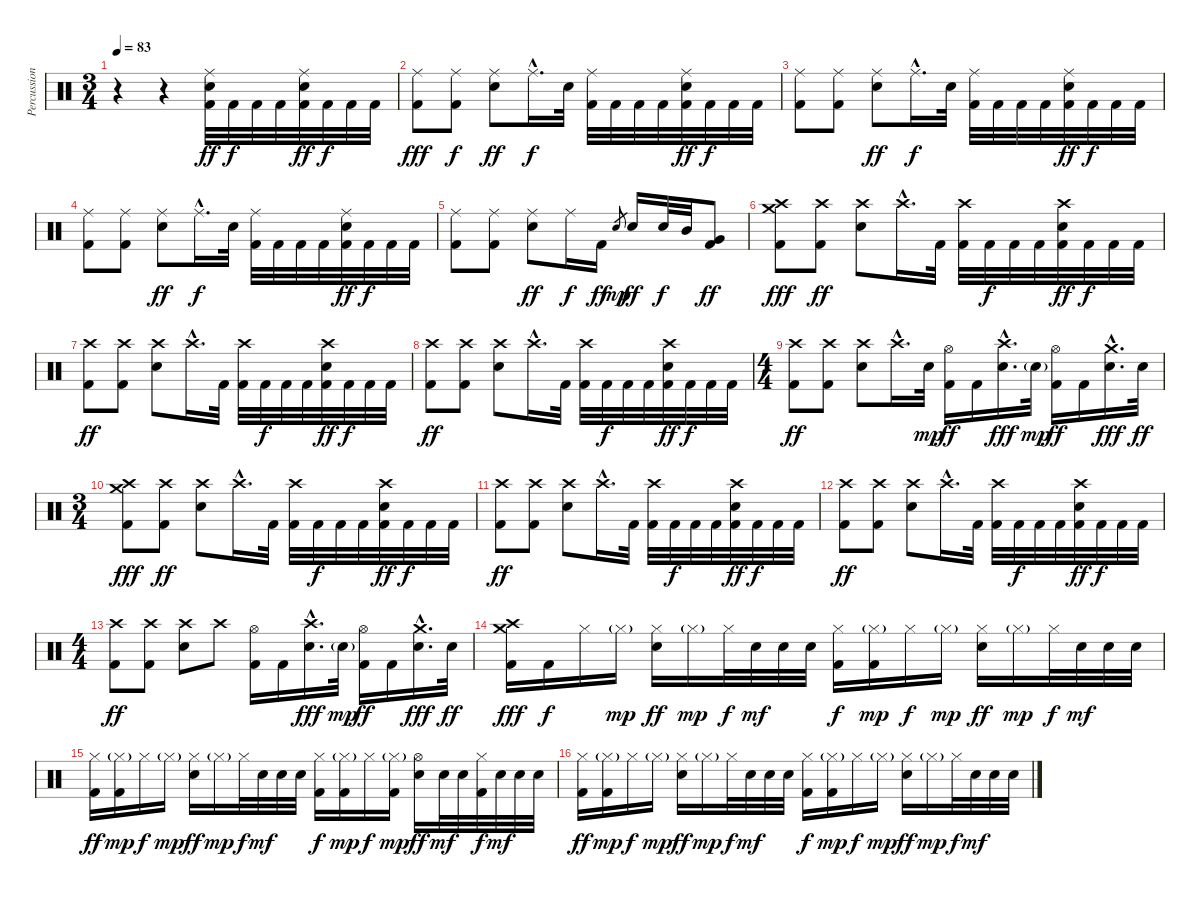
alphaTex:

\track ("Percussions" "Percussion") {instrument percussion}
\staff {score}
\articulation defaults
\ts (3 4)
\tempo 83
\clef neutral
\ks c
r.4{dy ff} r.4 ("Ride (middle)" "Electric Snare (hit)" "Kick (hit) 2").32 "Kick (hit) 2".32{dy f} "Kick (hit) 2".32 "Kick (hit) 2".32 ("Ride (middle)" "Electric Snare (hit)" "Kick (hit) 2").32{dy ff} "Kick (hit) 2".32{dy f} "Kick (hit) 2".32 "Kick (hit) 2".32 |
("Ride (middle)" "Kick (hit) 2").8{dy fff} ("Ride (middle)" "Kick (hit) 2").8{dy f} ("Ride (middle)" "Electric Snare (hit)").8{dy ff} "Ride (middle)"{hac}.16{d dy f} "Electric Snare (hit)".32 ("Ride (middle)" "Kick (hit) 2").32 "Kick (hit) 2".32 "Kick (hit) 2".32 "Kick (hit) 2".32 ("Ride (middle)" "Electric Snare (hit)" "Kick (hit) 2").32{dy ff} "Kick (hit) 2".32{dy f} "Kick (hit) 2".32 "Kick (hit) 2".32 |
("Ride (middle)" "Kick (hit) 2").8 ("Ride (middle)" "Kick (hit) 2").8 ("Ride (middle)" "Electric Snare (hit)").8{dy ff} "Ride (middle)"{hac}.16{d dy f} "Electric Snare (hit)".32 ("Ride (middle)" "Kick (hit) 2").32 "Kick (hit) 2".32 "Kick (hit) 2".32 "Kick (hit) 2".32 ("Ride (middle)" "Electric Snare (hit)" "Kick (hit) 2").32{dy ff} "Kick (hit) 2".32{dy f} "Kick (hit) 2".32 "Kick (hit) 2".32 |
("Ride (middle)" "Kick (hit) 2").8 ("Ride (middle)" "Kick (hit) 2").8 ("Ride (middle)" "Electric Snare (hit)").8{dy ff} "Ride (middle)"{hac}.16{d dy f} "Electric Snare (hit)".32 ("Ride (middle)" "Kick (hit) 2").32 "Kick (hit) 2".32 "Kick (hit) 2".32 "Kick (hit) 2".32 ("Ride (middle)" "Electric Snare (hit)" "Kick (hit) 2").32{dy ff} "Kick (hit) 2".32{dy f} "Kick (hit) 2".32 "Kick (hit) 2".32 |
("Ride (middle)" "Kick (hit) 2").8 ("Ride (middle)" "Kick (hit) 2").8 ("Ride (middle)" "Electric Snare (hit)").8{dy ff} "Ride (middle)".16{dy f} "Kick (hit) 2".16{dy ff} "Electric Snare (hit)".8{gr dy mp} "Electric Snare (hit)".16{dy ff} "Electric Snare (hit)".32{dy f} "Mid Tom (hit)".32 ("Very Low Tom (hit)" "Kick (hit) 2").8{dy ff} |
("Crash high (hit)" "Crash medium (hit)" "Kick (hit) 2").8{dy fff} ("Crash high (hit)" "Kick (hit) 2").8{dy ff} ("Crash high (hit)" "Electric Snare (hit)").8 "Crash high (hit)"{hac}.16{d} "Kick (hit) 2".32 ("Crash high (hit)" "Kick (hit) 2").32 "Kick (hit) 2".32{dy f} "Kick (hit) 2".32 "Kick (hit) 2".32 ("Crash high (hit)" "Electric Snare (hit)" "Kick (hit) 2").32{dy ff} "Kick (hit) 2".32{dy f} "Kick (hit) 2".32 "Kick (hit) 2".32 |
("Crash high (hit)" "Kick (hit) 2").8{dy ff} ("Crash high (hit)" "Kick (hit) 2").8 ("Crash high (hit)" "Electric Snare (hit)").8 "Crash high (hit)"{hac}.16{d} "Kick (hit) 2".32 ("Crash high (hit)" "Kick (hit) 2").32 "Kick (hit) 2".32{dy f} "Kick (hit) 2".32 "Kick (hit) 2".32 ("Crash high (hit)" "Electric Snare (hit)" "Kick (hit) 2").32{dy ff} "Kick (hit) 2".32{dy f} "Kick (hit) 2".32 "Kick (hit) 2".32 |
("Crash high (hit)" "Kick (hit) 2").8{dy ff} ("Crash high (hit)" "Kick (hit) 2").8 ("Crash high (hit)" "Electric Snare (hit)").8 "Crash high (hit)"{hac}.16{d} "Kick (hit) 2".32 ("Crash high (hit)" "Kick (hit) 2").32 "Kick (hit) 2".32{dy f} "Kick (hit) 2".32 "Kick (hit) 2".32 ("Crash high (hit)" "Electric Snare (hit)" "Kick (hit) 2").32{dy ff} "Kick (hit) 2".32{dy f} "Kick (hit) 2".32 "Kick (hit) 2".32 |
\ts (4 4)
("Crash high (hit)" "Kick (hit) 2").8{dy ff} ("Crash high (hit)" "Kick (hit) 2").8 ("Crash high (hit)" "Electric Snare (hit)").8 "Crash high (hit)"{hac}.16{d} "Electric Snare (hit)".32{dy mp} ("Hi-Hat (open)" "Kick (hit) 2").16{dy ff} "Kick (hit) 2".16 ("Crash high (hit)"{hac} "Electric Snare (hit)"{hac}).16{d dy fff} "Electric Snare (hit)"{g}.32{dy mp} ("Hi-Hat (open)" "Kick (hit) 2").16{dy ff} "Kick (hit) 2".16 ("Crash medium (hit)"{hac} "Electric Snare (hit)"{hac}).16{d dy fff} "Electric Snare (hit)".32{dy ff} |
\ts (3 4)
("Crash high (hit)" "Crash medium (hit)" "Kick (hit) 2").8{dy fff} ("Crash high (hit)" "Kick (hit) 2").8{dy ff} ("Crash high (hit)" "Electric Snare (hit)").8 "Crash high (hit)"{hac}.16{d} "Kick (hit) 2".32 ("Crash high (hit)" "Kick (hit) 2").32 "Kick (hit) 2".32{dy f} "Kick (hit) 2".32 "Kick (hit) 2".32 ("Crash high (hit)" "Electric Snare (hit)" "Kick (hit) 2").32{dy ff} "Kick (hit) 2".32{dy f} "Kick (hit) 2".32 "Kick (hit) 2".32 |
("Crash high (hit)" "Kick (hit) 2").8{dy ff} ("Crash high (hit)" "Kick (hit) 2").8 ("Crash high (hit)" "Electric Snare (hit)").8 "Crash high (hit)"{hac}.16{d} "Kick (hit) 2".32 ("Crash high (hit)" "Kick (hit) 2").32 "Kick (hit) 2".32{dy f} "Kick (hit) 2".32 "Kick (hit) 2".32 ("Crash high (hit)" "Electric Snare (hit)" "Kick (hit) 2").32{dy ff} "Kick (hit) 2".32{dy f} "Kick (hit) 2".32 "Kick (hit) 2".32 |
("Crash high (hit)" "Kick (hit) 2").8{dy ff} ("Crash high (hit)" "Kick (hit) 2").8 ("Crash high (hit)" "Electric Snare (hit)").8 "Crash high (hit)"{hac}.16{d} "Kick (hit) 2".32 ("Crash high (hit)" "Kick (hit) 2").32 "Kick (hit) 2".32{dy f} "Kick (hit) 2".32 "Kick (hit) 2".32 ("Crash high (hit)" "Electric Snare (hit)" "Kick (hit) 2").32{dy ff} "Kick (hit) 2".32{dy f} "Kick (hit) 2".32 "Kick (hit) 2".32 |
\ts (4 4)
("Crash high (hit)" "Kick (hit) 2").8{dy ff} ("Crash high (hit)" "Kick (hit) 2").8 ("Crash high (hit)" "Electric Snare (hit)").8 "Crash high (hit)".8 ("Hi-Hat (open)" "Kick (hit) 2").16 "Kick (hit) 2".16 ("Crash high (hit)"{hac} "Electric Snare (hit)"{hac}).16{d dy fff} "Electric Snare (hit)"{g}.32{dy mp} ("Hi-Hat (open)" "Kick (hit) 2").16{dy ff} "Kick (hit) 2".16 ("Crash medium (hit)"{hac} "Electric Snare (hit)"{hac}).16{d dy fff} "Electric Snare (hit)".32{dy ff} |
("Crash high (hit)" "Crash medium (hit)" "Kick (hit) 2").16{dy fff volume 14} "Kick (hit) 2".16{dy f} "Hi-Hat (closed)".16 "Hi-Hat (closed)"{g}.16{dy mp} ("Hi-Hat (closed)" "Electric Snare (hit)").16{dy ff} "Hi-Hat (closed)"{g}.16{dy mp} "Hi-Hat (closed)".32{dy f} "Electric Snare (hit)".32{dy mf} "Electric Snare (hit)".32 "Electric Snare (hit)".32 ("Hi-Hat (closed)" "Kick (hit) 2").16{dy f} ("Hi-Hat (closed)"{g} "Kick (hit) 2").16{dy mp} "Hi-Hat (closed)".16{dy f} "Hi-Hat (closed)"{g}.16{dy mp} ("Hi-Hat (closed)" "Electric Snare (hit)").16{dy ff} "Hi-Hat (closed)"{g}.16{dy mp} "Hi-Hat (closed)".32{dy f} "Electric Snare (hit)".32{dy mf} "Electric Snare (hit)".32 "Electric Snare (hit)".32 |
("Hi-Hat (closed)" "Kick (hit) 2").16{dy ff} ("Hi-Hat (closed)"{g} "Kick (hit) 2").16{dy mp} "Hi-Hat (closed)".16{dy f} "Hi-Hat (closed)"{g}.16{dy mp} ("Hi-Hat (closed)" "Electric Snare (hit)").16{dy ff} "Hi-Hat (closed)"{g}.16{dy mp} "Hi-Hat (closed)".32{dy f} "Electric Snare (hit)".32{dy mf} "Electric Snare (hit)".32 "Electric Snare (hit)".32 ("Hi-Hat (closed)" "Kick (hit) 2").16{dy f} ("Hi-Hat (closed)"{g} "Kick (hit) 2").16{dy mp} "Hi-Hat (closed)".16{dy f} ("Hi-Hat (closed)"{g} "Kick (hit) 2").16{dy mp} ("Hi-Hat (open)" "Electric Snare (hit)").16{dy ff} "Electric Snare (hit)".32{dy mf} "Electric Snare (hit)".32 ("Hi-Hat (closed)" "Kick (hit) 2").32{dy f} "Electric Snare (hit)".32{dy mf} "Electric Snare (hit)".32 "Electric Snare (hit)".32 |
("Hi-Hat (closed)" "Kick (hit) 2").16{dy ff} ("Hi-Hat (closed)"{g} "Kick (hit) 2").16{dy mp} "Hi-Hat (closed)".16{dy f} "Hi-Hat (closed)"{g}.16{dy mp} ("Hi-Hat (closed)" "Electric Snare (hit)").16{dy ff} "Hi-Hat (closed)"{g}.16{dy mp} "Hi-Hat (closed)".32{dy f} "Electric Snare (hit)".32{dy mf} "Electric Snare (hit)".32 "Electric Snare (hit)".32 ("Hi-Hat (closed)" "Kick (hit) 2").16{dy f} ("Hi-Hat (closed)"{g} "Kick (hit) 2").16{dy mp} "Hi-Hat (closed)".16{dy f} "Hi-Hat (closed)"{g}.16{dy mp} ("Hi-Hat (closed)" "Electric Snare (hit)").16{dy ff} "Hi-Hat (closed)"{g}.16{dy mp} "Hi-Hat (closed)".32{dy f} "Electric Snare (hit)".32{dy mf} "Electric Snare (hit)".32 "Electric Snare (hit)".32
